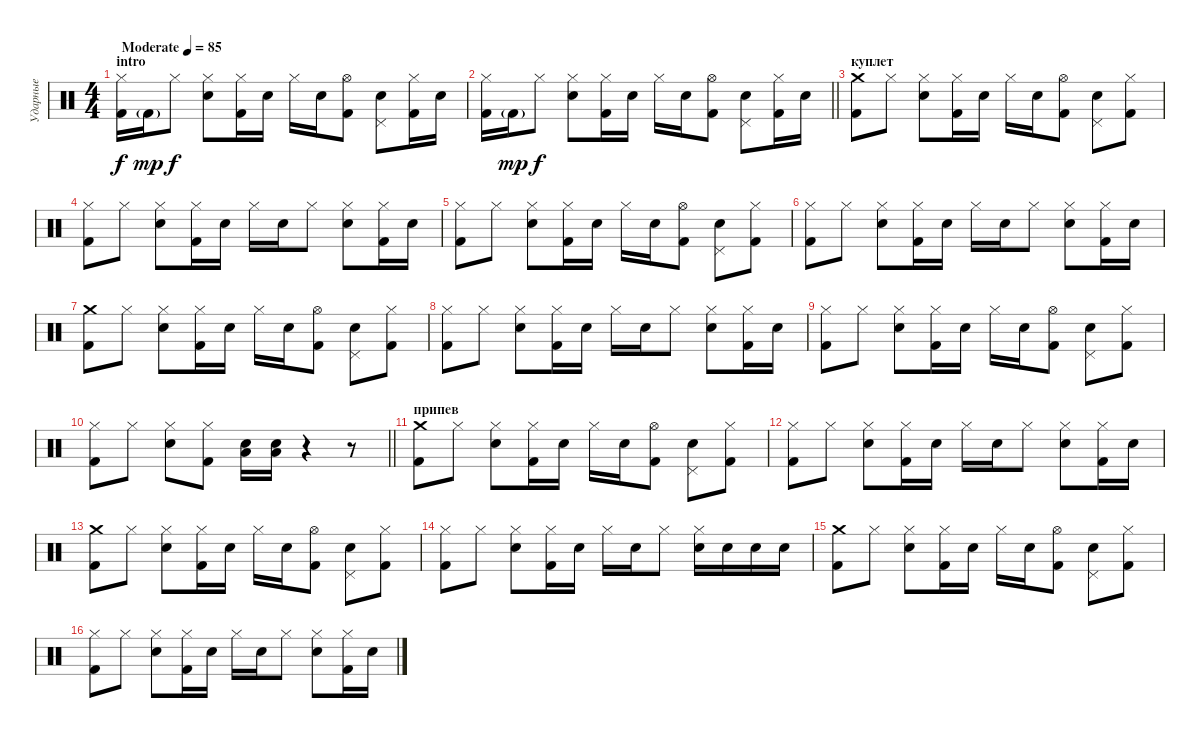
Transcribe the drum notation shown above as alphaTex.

\track ("Ударные" "Ударные") {instrument percussion}
\staff {score}
\articulation defaults
\ts (4 4)
\section ("" "intro")
\tempo (85 "Moderate")
\clef neutral
\ks c
("Hi-Hat (closed)" "Kick (hit) 2").16{dy f volume 10} "Kick (hit) 2"{g}.16{dy mp volume 16} "Hi-Hat (closed)".8{dy f} ("Hi-Hat (closed)" "Snare (hit) 2").8 ("Hi-Hat (closed)" "Kick (hit) 2").16 "Snare (hit) 2".16 "Hi-Hat (closed)".16 "Snare (hit) 2".16 ("Hi-Hat (open)" "Kick (hit) 2").8 ("Snare (hit) 2" "Pedal Hi-Hat (hit)").8 ("Hi-Hat (closed)" "Kick (hit) 2").16 "Snare (hit) 2".16 |
\barLineRight lightlight
("Hi-Hat (closed)" "Kick (hit) 2").16 "Kick (hit) 2"{g}.16{dy mp} "Hi-Hat (closed)".8{dy f} ("Hi-Hat (closed)" "Snare (hit) 2").8 ("Hi-Hat (closed)" "Kick (hit) 2").16 "Snare (hit) 2".16 "Hi-Hat (closed)".16 "Snare (hit) 2".16 ("Hi-Hat (open)" "Kick (hit) 2").8 ("Snare (hit) 2" "Pedal Hi-Hat (hit)").8 ("Hi-Hat (closed)" "Kick (hit) 2").16 "Snare (hit) 2".16 |
\section ("" "куплет")
("Crash medium (hit)" "Kick (hit) 2").8{volume 14} "Hi-Hat (closed)".8 ("Hi-Hat (closed)" "Snare (hit) 2").8 ("Hi-Hat (closed)" "Kick (hit) 2").16 "Snare (hit) 2".16 "Hi-Hat (closed)".16 "Snare (hit) 2".16 ("Hi-Hat (open)" "Kick (hit) 2").8 ("Snare (hit) 2" "Pedal Hi-Hat (hit)").8 ("Hi-Hat (closed)" "Kick (hit) 2").8 |
("Hi-Hat (closed)" "Kick (hit) 2").8 "Hi-Hat (closed)".8 ("Hi-Hat (closed)" "Snare (hit) 2").8 ("Hi-Hat (closed)" "Kick (hit) 2").16 "Snare (hit) 2".16 "Hi-Hat (closed)".16 "Snare (hit) 2".16 "Hi-Hat (closed)".8 ("Hi-Hat (closed)" "Snare (hit) 2").8 ("Hi-Hat (closed)" "Kick (hit) 2").16 "Snare (hit) 2".16 |
("Hi-Hat (closed)" "Kick (hit) 2").8 "Hi-Hat (closed)".8 ("Hi-Hat (closed)" "Snare (hit) 2").8 ("Hi-Hat (closed)" "Kick (hit) 2").16 "Snare (hit) 2".16 "Hi-Hat (closed)".16 "Snare (hit) 2".16 ("Hi-Hat (open)" "Kick (hit) 2").8 ("Snare (hit) 2" "Pedal Hi-Hat (hit)").8 ("Hi-Hat (closed)" "Kick (hit) 2").8 |
("Hi-Hat (closed)" "Kick (hit) 2").8 "Hi-Hat (closed)".8 ("Hi-Hat (closed)" "Snare (hit) 2").8 ("Hi-Hat (closed)" "Kick (hit) 2").16 "Snare (hit) 2".16 "Hi-Hat (closed)".16 "Snare (hit) 2".16 "Hi-Hat (closed)".8 ("Hi-Hat (closed)" "Snare (hit) 2").8 ("Hi-Hat (closed)" "Kick (hit) 2").16 "Snare (hit) 2".16 |
("Crash medium (hit)" "Kick (hit) 2").8 "Hi-Hat (closed)".8 ("Hi-Hat (closed)" "Snare (hit) 2").8 ("Hi-Hat (closed)" "Kick (hit) 2").16 "Snare (hit) 2".16 "Hi-Hat (closed)".16 "Snare (hit) 2".16 ("Hi-Hat (open)" "Kick (hit) 2").8 ("Snare (hit) 2" "Pedal Hi-Hat (hit)").8 ("Hi-Hat (closed)" "Kick (hit) 2").8 |
("Hi-Hat (closed)" "Kick (hit) 2").8 "Hi-Hat (closed)".8 ("Hi-Hat (closed)" "Snare (hit) 2").8 ("Hi-Hat (closed)" "Kick (hit) 2").16 "Snare (hit) 2".16 "Hi-Hat (closed)".16 "Snare (hit) 2".16 "Hi-Hat (closed)".8 ("Hi-Hat (closed)" "Snare (hit) 2").8 ("Hi-Hat (closed)" "Kick (hit) 2").16 "Snare (hit) 2".16 |
("Hi-Hat (closed)" "Kick (hit) 2").8 "Hi-Hat (closed)".8 ("Hi-Hat (closed)" "Snare (hit) 2").8 ("Hi-Hat (closed)" "Kick (hit) 2").16 "Snare (hit) 2".16 "Hi-Hat (closed)".16 "Snare (hit) 2".16 ("Hi-Hat (open)" "Kick (hit) 2").8 ("Snare (hit) 2" "Pedal Hi-Hat (hit)").8 ("Hi-Hat (closed)" "Kick (hit) 2").8 |
\barLineRight lightlight
("Hi-Hat (closed)" "Kick (hit) 2").8 "Hi-Hat (closed)".8 ("Hi-Hat (closed)" "Snare (hit) 2").8 ("Hi-Hat (closed)" "Kick (hit) 2").8 ("Snare (hit) 2" "Low Floor Tom (hit)").16 ("Snare (hit) 2" "Low Floor Tom (hit)").16 r.4 r.8 |
\section ("" "припев")
("Crash medium (hit)" "Kick (hit) 2").8 "Hi-Hat (closed)".8 ("Hi-Hat (closed)" "Snare (hit) 2").8 ("Hi-Hat (closed)" "Kick (hit) 2").16 "Snare (hit) 2".16 "Hi-Hat (closed)".16 "Snare (hit) 2".16 ("Hi-Hat (open)" "Kick (hit) 2").8 ("Snare (hit) 2" "Pedal Hi-Hat (hit)").8 ("Hi-Hat (closed)" "Kick (hit) 2").8 |
("Hi-Hat (closed)" "Kick (hit) 2").8 "Hi-Hat (closed)".8 ("Hi-Hat (closed)" "Snare (hit) 2").8 ("Hi-Hat (closed)" "Kick (hit) 2").16 "Snare (hit) 2".16 "Hi-Hat (closed)".16 "Snare (hit) 2".16 "Hi-Hat (closed)".8 ("Hi-Hat (closed)" "Snare (hit) 2").8 ("Hi-Hat (closed)" "Kick (hit) 2").16 "Snare (hit) 2".16 |
("Crash medium (hit)" "Kick (hit) 2").8 "Hi-Hat (closed)".8 ("Hi-Hat (closed)" "Snare (hit) 2").8 ("Hi-Hat (closed)" "Kick (hit) 2").16 "Snare (hit) 2".16 "Hi-Hat (closed)".16 "Snare (hit) 2".16 ("Hi-Hat (open)" "Kick (hit) 2").8 ("Snare (hit) 2" "Pedal Hi-Hat (hit)").8 ("Hi-Hat (closed)" "Kick (hit) 2").8 |
("Hi-Hat (closed)" "Kick (hit) 2").8 "Hi-Hat (closed)".8 ("Hi-Hat (closed)" "Snare (hit) 2").8 ("Hi-Hat (closed)" "Kick (hit) 2").16 "Snare (hit) 2".16 "Hi-Hat (closed)".16 "Snare (hit) 2".16 "Hi-Hat (closed)".8 ("Hi-Hat (closed)" "Snare (hit) 2").16 "Snare (hit) 2".16 "Snare (hit) 2".16 "Snare (hit) 2".16 |
("Crash medium (hit)" "Kick (hit) 2").8 "Hi-Hat (closed)".8 ("Hi-Hat (closed)" "Snare (hit) 2").8 ("Hi-Hat (closed)" "Kick (hit) 2").16 "Snare (hit) 2".16 "Hi-Hat (closed)".16 "Snare (hit) 2".16 ("Hi-Hat (open)" "Kick (hit) 2").8 ("Snare (hit) 2" "Pedal Hi-Hat (hit)").8 ("Hi-Hat (closed)" "Kick (hit) 2").8 |
("Hi-Hat (closed)" "Kick (hit) 2").8 "Hi-Hat (closed)".8 ("Hi-Hat (closed)" "Snare (hit) 2").8 ("Hi-Hat (closed)" "Kick (hit) 2").16 "Snare (hit) 2".16 "Hi-Hat (closed)".16 "Snare (hit) 2".16 "Hi-Hat (closed)".8 ("Hi-Hat (closed)" "Snare (hit) 2").8 ("Hi-Hat (closed)" "Kick (hit) 2").16 "Snare (hit) 2".16
